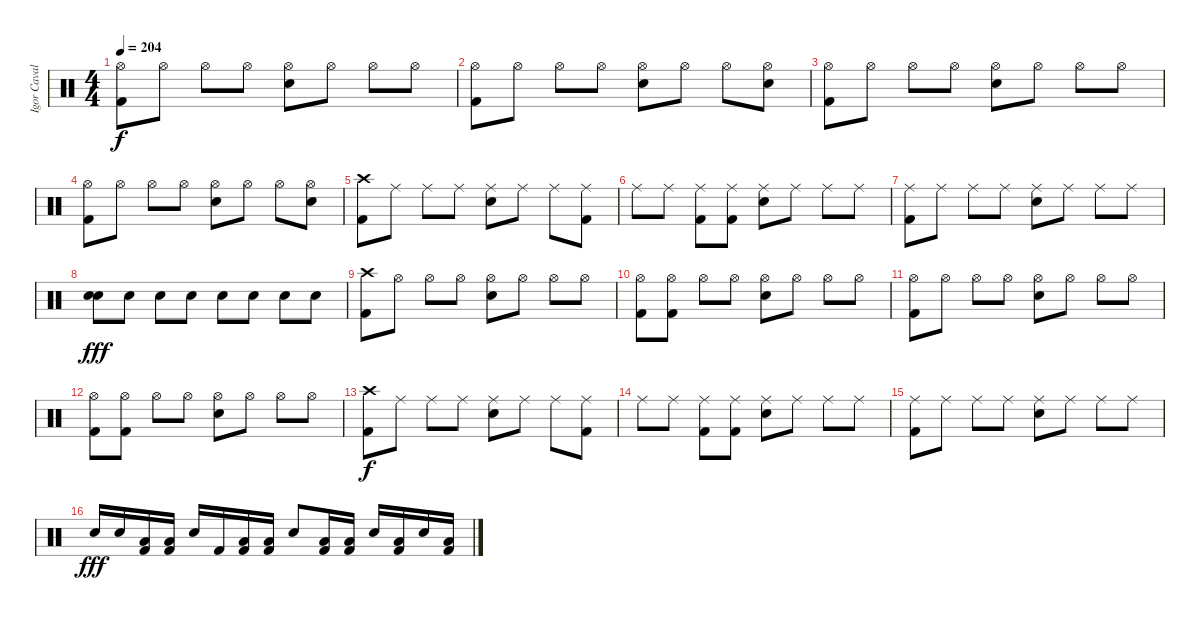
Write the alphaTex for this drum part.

\track ("Igor Cavalera" "Igor Caval") {instrument percussion}
\staff {score}
\articulation defaults
\ts (4 4)
\tempo 204
\clef neutral
\ks c
("Kick (hit) 2" "Hi-Hat (open)").8{dy f} "Hi-Hat (open)".8 "Hi-Hat (open)".8 "Hi-Hat (open)".8 ("Snare (hit) 2" "Hi-Hat (open)").8 "Hi-Hat (open)".8 "Hi-Hat (open)".8 "Hi-Hat (open)".8 |
("Kick (hit) 2" "Hi-Hat (open)").8 "Hi-Hat (open)".8 "Hi-Hat (open)".8 "Hi-Hat (open)".8 ("Snare (hit) 2" "Hi-Hat (open)").8 "Hi-Hat (open)".8 "Hi-Hat (open)".8 ("Snare (hit) 2" "Hi-Hat (open)").8 |
("Kick (hit) 2" "Hi-Hat (open)").8 "Hi-Hat (open)".8 "Hi-Hat (open)".8 "Hi-Hat (open)".8 ("Snare (hit) 2" "Hi-Hat (open)").8 "Hi-Hat (open)".8 "Hi-Hat (open)".8 "Hi-Hat (open)".8 |
("Kick (hit) 2" "Hi-Hat (open)").8 "Hi-Hat (open)".8 "Hi-Hat (open)".8 "Hi-Hat (open)".8 ("Snare (hit) 2" "Hi-Hat (open)").8 "Hi-Hat (open)".8 "Hi-Hat (open)".8 ("Snare (hit) 2" "Hi-Hat (open)").8 |
("Kick (hit) 2" "Crash high (hit)").8 "Ride (middle)".8 "Ride (middle)".8 "Ride (middle)".8 ("Snare (hit) 2" "Ride (middle)").8 "Ride (middle)".8 "Ride (middle)".8 ("Kick (hit) 2" "Ride (middle)").8 |
"Ride (middle)".8 "Ride (middle)".8 ("Kick (hit) 2" "Ride (middle)").8 ("Kick (hit) 2" "Ride (middle)").8 ("Snare (hit) 2" "Ride (middle)").8 "Ride (middle)".8 "Ride (middle)".8 "Ride (middle)".8 |
("Kick (hit) 2" "Ride (middle)").8 "Ride (middle)".8 "Ride (middle)".8 "Ride (middle)".8 ("Snare (hit) 2" "Ride (middle)").8 "Ride (middle)".8 "Ride (middle)".8 "Ride (middle)".8 |
("Snare (hit) 2" "Snare (hit) 2").8{dy fff} "Snare (hit) 2".8 "Snare (hit) 2".8 "Snare (hit) 2".8 "Snare (hit) 2".8 "Snare (hit) 2".8 "Snare (hit) 2".8 "Snare (hit) 2".8 |
("Kick (hit) 2" "Crash high (hit)").8 "Hi-Hat (open)".8 "Hi-Hat (open)".8 "Hi-Hat (open)".8 ("Snare (hit) 2" "Hi-Hat (open)").8 "Hi-Hat (open)".8 "Hi-Hat (open)".8 "Hi-Hat (open)".8 |
("Kick (hit) 2" "Hi-Hat (open)").8 ("Kick (hit) 2" "Hi-Hat (open)").8 "Hi-Hat (open)".8 "Hi-Hat (open)".8 ("Snare (hit) 2" "Hi-Hat (open)").8 "Hi-Hat (open)".8 "Hi-Hat (open)".8 "Hi-Hat (open)".8 |
("Kick (hit) 2" "Hi-Hat (open)").8 "Hi-Hat (open)".8 "Hi-Hat (open)".8 "Hi-Hat (open)".8 ("Snare (hit) 2" "Hi-Hat (open)").8 "Hi-Hat (open)".8 "Hi-Hat (open)".8 "Hi-Hat (open)".8 |
("Kick (hit) 2" "Hi-Hat (open)").8 ("Kick (hit) 2" "Hi-Hat (open)").8 "Hi-Hat (open)".8 "Hi-Hat (open)".8 ("Snare (hit) 2" "Hi-Hat (open)").8 "Hi-Hat (open)".8 "Hi-Hat (open)".8 "Hi-Hat (open)".8 |
("Kick (hit) 2" "Crash high (hit)").8{dy f} "Ride (middle)".8 "Ride (middle)".8 "Ride (middle)".8 ("Snare (hit) 2" "Ride (middle)").8 "Ride (middle)".8 "Ride (middle)".8 ("Kick (hit) 2" "Ride (middle)").8 |
"Ride (middle)".8 "Ride (middle)".8 ("Kick (hit) 2" "Ride (middle)").8 ("Kick (hit) 2" "Ride (middle)").8 ("Snare (hit) 2" "Ride (middle)").8 "Ride (middle)".8 "Ride (middle)".8 "Ride (middle)".8 |
("Kick (hit) 2" "Ride (middle)").8 "Ride (middle)".8 "Ride (middle)".8 "Ride (middle)".8 ("Snare (hit) 2" "Ride (middle)").8 "Ride (middle)".8 "Ride (middle)".8 "Ride (middle)".8 |
"Snare (hit) 2".16{dy fff} "Snare (hit) 2".16 ("Kick (hit) 2" "Low Tom (hit)").16 ("Kick (hit) 2" "Low Tom (hit)").16 "Snare (hit) 2".16 "Kick (hit) 2".16 ("Kick (hit) 2" "Low Tom (hit)").16 ("Kick (hit) 2" "Low Tom (hit)").16 "Snare (hit) 2".8 ("Kick (hit) 2" "Low Tom (hit)").16 ("Kick (hit) 2" "Low Tom (hit)").16 "Snare (hit) 2".16 ("Kick (hit) 2" "Low Tom (hit)").16 "Snare (hit) 2".16 ("Kick (hit) 2" "Low Tom (hit)").16
